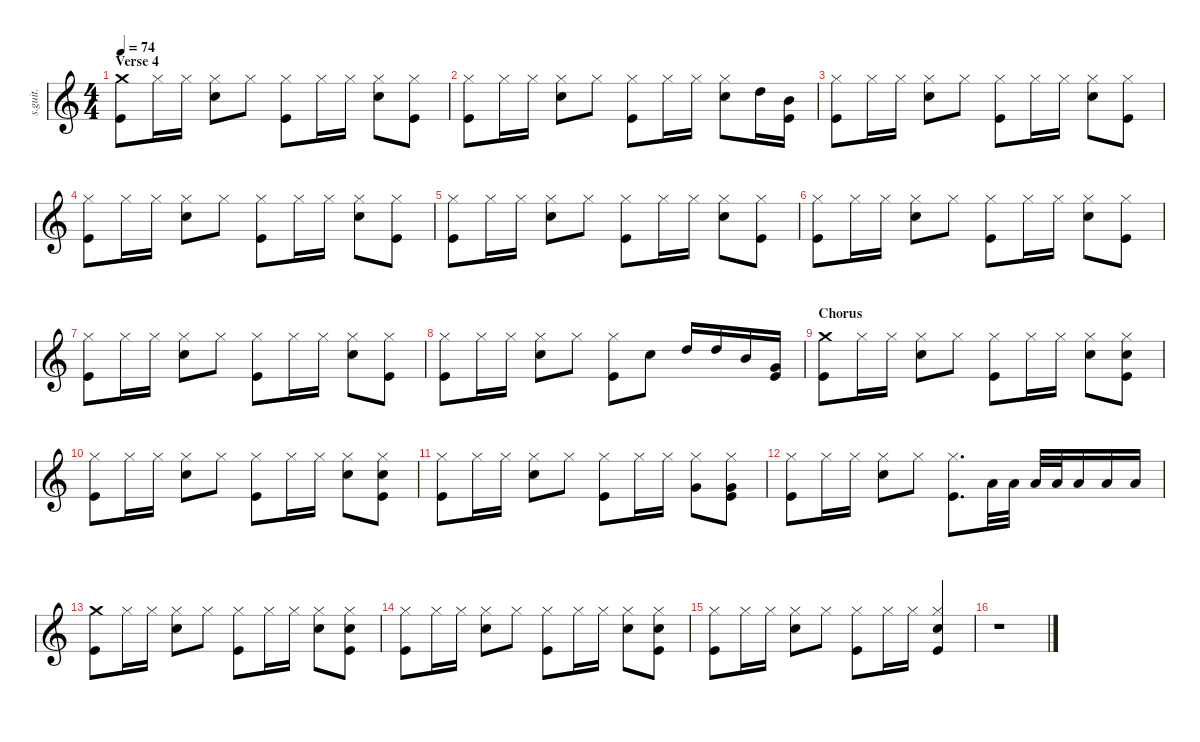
\defaultSystemsLayout 4
\hideDynamics
\bracketExtendMode nobrackets
\track ("Don Henley - Drums" "s.guit.") {instrument percussion}
\staff {score}
\articulation defaults
\ts (4 4)
\section ("" "Verse 4")
\tempo 74
\clef g2
\ks c
("Crash medium (hit)" "Kick (hit)").8{lyrics (0 "") lyrics (1 "") lyrics (2 "") lyrics (3 "") lyrics (4 "") dy f} "Hi-Hat (closed)".16{lyrics (0 "") lyrics (1 "") lyrics (2 "") lyrics (3 "") lyrics (4 "")} "Hi-Hat (closed)".16{lyrics (0 "") lyrics (1 "") lyrics (2 "") lyrics (3 "") lyrics (4 "")} ("Hi-Hat (closed)" "Snare (hit) 2").8{lyrics (0 "") lyrics (1 "") lyrics (2 "") lyrics (3 "") lyrics (4 "")} "Hi-Hat (closed)".8{lyrics (0 "") lyrics (1 "") lyrics (2 "") lyrics (3 "") lyrics (4 "")} ("Hi-Hat (closed)" "Kick (hit)").8{lyrics (0 "") lyrics (1 "") lyrics (2 "") lyrics (3 "") lyrics (4 "")} "Hi-Hat (closed)".16{lyrics (0 "") lyrics (1 "") lyrics (2 "") lyrics (3 "") lyrics (4 "")} "Hi-Hat (closed)".16{lyrics (0 "") lyrics (1 "") lyrics (2 "") lyrics (3 "") lyrics (4 "")} ("Hi-Hat (closed)" "Snare (hit) 2").8{lyrics (0 "") lyrics (1 "") lyrics (2 "") lyrics (3 "") lyrics (4 "")} ("Hi-Hat (closed)" "Kick (hit)").8{lyrics (0 "") lyrics (1 "") lyrics (2 "") lyrics (3 "") lyrics (4 "")} |
("Hi-Hat (closed)" "Kick (hit)").8{lyrics (0 "") lyrics (1 "") lyrics (2 "") lyrics (3 "") lyrics (4 "")} "Hi-Hat (closed)".16{lyrics (0 "") lyrics (1 "") lyrics (2 "") lyrics (3 "") lyrics (4 "")} "Hi-Hat (closed)".16{lyrics (0 "") lyrics (1 "") lyrics (2 "") lyrics (3 "") lyrics (4 "")} ("Hi-Hat (closed)" "Snare (hit) 2").8{lyrics (0 "") lyrics (1 "") lyrics (2 "") lyrics (3 "") lyrics (4 "")} "Hi-Hat (closed)".8{lyrics (0 "") lyrics (1 "") lyrics (2 "") lyrics (3 "") lyrics (4 "")} ("Hi-Hat (closed)" "Kick (hit)").8{lyrics (0 "") lyrics (1 "") lyrics (2 "") lyrics (3 "") lyrics (4 "")} "Hi-Hat (closed)".16{lyrics (0 "") lyrics (1 "") lyrics (2 "") lyrics (3 "") lyrics (4 "")} "Hi-Hat (closed)".16{lyrics (0 "") lyrics (1 "") lyrics (2 "") lyrics (3 "") lyrics (4 "")} ("Hi-Hat (closed)" "Snare (hit) 2").8{lyrics (0 "") lyrics (1 "") lyrics (2 "") lyrics (3 "") lyrics (4 "")} "High Tom (hit)".16{lyrics (0 "") lyrics (1 "") lyrics (2 "") lyrics (3 "") lyrics (4 "")} ("Mid Tom (hit)" "Kick (hit)").16{lyrics (0 "") lyrics (1 "") lyrics (2 "") lyrics (3 "") lyrics (4 "")} |
("Hi-Hat (closed)" "Kick (hit)").8{lyrics (0 "") lyrics (1 "") lyrics (2 "") lyrics (3 "") lyrics (4 "")} "Hi-Hat (closed)".16{lyrics (0 "") lyrics (1 "") lyrics (2 "") lyrics (3 "") lyrics (4 "")} "Hi-Hat (closed)".16{lyrics (0 "") lyrics (1 "") lyrics (2 "") lyrics (3 "") lyrics (4 "")} ("Hi-Hat (closed)" "Snare (hit) 2").8{lyrics (0 "") lyrics (1 "") lyrics (2 "") lyrics (3 "") lyrics (4 "")} "Hi-Hat (closed)".8{lyrics (0 "") lyrics (1 "") lyrics (2 "") lyrics (3 "") lyrics (4 "")} ("Hi-Hat (closed)" "Kick (hit)").8{lyrics (0 "") lyrics (1 "") lyrics (2 "") lyrics (3 "") lyrics (4 "")} "Hi-Hat (closed)".16{lyrics (0 "") lyrics (1 "") lyrics (2 "") lyrics (3 "") lyrics (4 "")} "Hi-Hat (closed)".16{lyrics (0 "") lyrics (1 "") lyrics (2 "") lyrics (3 "") lyrics (4 "")} ("Hi-Hat (closed)" "Snare (hit) 2").8{lyrics (0 "") lyrics (1 "") lyrics (2 "") lyrics (3 "") lyrics (4 "")} ("Hi-Hat (closed)" "Kick (hit)").8{lyrics (0 "") lyrics (1 "") lyrics (2 "") lyrics (3 "") lyrics (4 "")} |
("Hi-Hat (closed)" "Kick (hit)").8{lyrics (0 "") lyrics (1 "") lyrics (2 "") lyrics (3 "") lyrics (4 "")} "Hi-Hat (closed)".16{lyrics (0 "") lyrics (1 "") lyrics (2 "") lyrics (3 "") lyrics (4 "")} "Hi-Hat (closed)".16{lyrics (0 "") lyrics (1 "") lyrics (2 "") lyrics (3 "") lyrics (4 "")} ("Hi-Hat (closed)" "Snare (hit) 2").8{lyrics (0 "") lyrics (1 "") lyrics (2 "") lyrics (3 "") lyrics (4 "")} "Hi-Hat (closed)".8{lyrics (0 "") lyrics (1 "") lyrics (2 "") lyrics (3 "") lyrics (4 "")} ("Hi-Hat (closed)" "Kick (hit)").8{lyrics (0 "") lyrics (1 "") lyrics (2 "") lyrics (3 "") lyrics (4 "")} "Hi-Hat (closed)".16{lyrics (0 "") lyrics (1 "") lyrics (2 "") lyrics (3 "") lyrics (4 "")} "Hi-Hat (closed)".16{lyrics (0 "") lyrics (1 "") lyrics (2 "") lyrics (3 "") lyrics (4 "")} ("Hi-Hat (closed)" "Snare (hit) 2").8{lyrics (0 "") lyrics (1 "") lyrics (2 "") lyrics (3 "") lyrics (4 "")} ("Hi-Hat (closed)" "Kick (hit)").8{lyrics (0 "") lyrics (1 "") lyrics (2 "") lyrics (3 "") lyrics (4 "")} |
("Hi-Hat (closed)" "Kick (hit)").8{lyrics (0 "") lyrics (1 "") lyrics (2 "") lyrics (3 "") lyrics (4 "")} "Hi-Hat (closed)".16{lyrics (0 "") lyrics (1 "") lyrics (2 "") lyrics (3 "") lyrics (4 "")} "Hi-Hat (closed)".16{lyrics (0 "") lyrics (1 "") lyrics (2 "") lyrics (3 "") lyrics (4 "")} ("Hi-Hat (closed)" "Snare (hit) 2").8{lyrics (0 "") lyrics (1 "") lyrics (2 "") lyrics (3 "") lyrics (4 "")} "Hi-Hat (closed)".8{lyrics (0 "") lyrics (1 "") lyrics (2 "") lyrics (3 "") lyrics (4 "")} ("Hi-Hat (closed)" "Kick (hit)").8{lyrics (0 "") lyrics (1 "") lyrics (2 "") lyrics (3 "") lyrics (4 "")} "Hi-Hat (closed)".16{lyrics (0 "") lyrics (1 "") lyrics (2 "") lyrics (3 "") lyrics (4 "")} "Hi-Hat (closed)".16{lyrics (0 "") lyrics (1 "") lyrics (2 "") lyrics (3 "") lyrics (4 "")} ("Hi-Hat (closed)" "Snare (hit) 2").8{lyrics (0 "") lyrics (1 "") lyrics (2 "") lyrics (3 "") lyrics (4 "")} ("Hi-Hat (closed)" "Kick (hit)").8{lyrics (0 "") lyrics (1 "") lyrics (2 "") lyrics (3 "") lyrics (4 "")} |
("Hi-Hat (closed)" "Kick (hit)").8{lyrics (0 "") lyrics (1 "") lyrics (2 "") lyrics (3 "") lyrics (4 "")} "Hi-Hat (closed)".16{lyrics (0 "") lyrics (1 "") lyrics (2 "") lyrics (3 "") lyrics (4 "")} "Hi-Hat (closed)".16{lyrics (0 "") lyrics (1 "") lyrics (2 "") lyrics (3 "") lyrics (4 "")} ("Hi-Hat (closed)" "Snare (hit) 2").8{lyrics (0 "") lyrics (1 "") lyrics (2 "") lyrics (3 "") lyrics (4 "")} "Hi-Hat (closed)".8{lyrics (0 "") lyrics (1 "") lyrics (2 "") lyrics (3 "") lyrics (4 "")} ("Hi-Hat (closed)" "Kick (hit)").8{lyrics (0 "") lyrics (1 "") lyrics (2 "") lyrics (3 "") lyrics (4 "")} "Hi-Hat (closed)".16{lyrics (0 "") lyrics (1 "") lyrics (2 "") lyrics (3 "") lyrics (4 "")} "Hi-Hat (closed)".16{lyrics (0 "") lyrics (1 "") lyrics (2 "") lyrics (3 "") lyrics (4 "")} ("Hi-Hat (closed)" "Snare (hit) 2").8{lyrics (0 "") lyrics (1 "") lyrics (2 "") lyrics (3 "") lyrics (4 "")} ("Hi-Hat (closed)" "Kick (hit)").8{lyrics (0 "") lyrics (1 "") lyrics (2 "") lyrics (3 "") lyrics (4 "")} |
("Hi-Hat (closed)" "Kick (hit)").8{lyrics (0 "") lyrics (1 "") lyrics (2 "") lyrics (3 "") lyrics (4 "")} "Hi-Hat (closed)".16{lyrics (0 "") lyrics (1 "") lyrics (2 "") lyrics (3 "") lyrics (4 "")} "Hi-Hat (closed)".16{lyrics (0 "") lyrics (1 "") lyrics (2 "") lyrics (3 "") lyrics (4 "")} ("Hi-Hat (closed)" "Snare (hit) 2").8{lyrics (0 "") lyrics (1 "") lyrics (2 "") lyrics (3 "") lyrics (4 "")} "Hi-Hat (closed)".8{lyrics (0 "") lyrics (1 "") lyrics (2 "") lyrics (3 "") lyrics (4 "")} ("Hi-Hat (closed)" "Kick (hit)").8{lyrics (0 "") lyrics (1 "") lyrics (2 "") lyrics (3 "") lyrics (4 "")} "Hi-Hat (closed)".16{lyrics (0 "") lyrics (1 "") lyrics (2 "") lyrics (3 "") lyrics (4 "")} "Hi-Hat (closed)".16{lyrics (0 "") lyrics (1 "") lyrics (2 "") lyrics (3 "") lyrics (4 "")} ("Hi-Hat (closed)" "Snare (hit) 2").8{lyrics (0 "") lyrics (1 "") lyrics (2 "") lyrics (3 "") lyrics (4 "")} ("Hi-Hat (closed)" "Kick (hit)").8{lyrics (0 "") lyrics (1 "") lyrics (2 "") lyrics (3 "") lyrics (4 "")} |
("Hi-Hat (closed)" "Kick (hit)").8{lyrics (0 "") lyrics (1 "") lyrics (2 "") lyrics (3 "") lyrics (4 "")} "Hi-Hat (closed)".16{lyrics (0 "") lyrics (1 "") lyrics (2 "") lyrics (3 "") lyrics (4 "")} "Hi-Hat (closed)".16{lyrics (0 "") lyrics (1 "") lyrics (2 "") lyrics (3 "") lyrics (4 "")} ("Hi-Hat (closed)" "Snare (hit) 2").8{lyrics (0 "") lyrics (1 "") lyrics (2 "") lyrics (3 "") lyrics (4 "")} "Hi-Hat (closed)".8{lyrics (0 "") lyrics (1 "") lyrics (2 "") lyrics (3 "") lyrics (4 "")} ("Hi-Hat (closed)" "Kick (hit)").8{lyrics (0 "") lyrics (1 "") lyrics (2 "") lyrics (3 "") lyrics (4 "")} "Snare (hit) 2".8{lyrics (0 "") lyrics (1 "") lyrics (2 "") lyrics (3 "") lyrics (4 "")} "High Tom (hit)".16{lyrics (0 "") lyrics (1 "") lyrics (2 "") lyrics (3 "") lyrics (4 "")} "High Tom (hit)".16{lyrics (0 "") lyrics (1 "") lyrics (2 "") lyrics (3 "") lyrics (4 "")} "Mid Tom (hit)".16{lyrics (0 "") lyrics (1 "") lyrics (2 "") lyrics (3 "") lyrics (4 "")} ("Very Low Tom (hit)" "Kick (hit)").16{lyrics (0 "") lyrics (1 "") lyrics (2 "") lyrics (3 "") lyrics (4 "")} |
\section ("" "Chorus")
("Crash medium (hit)" "Kick (hit)").8{lyrics (0 "") lyrics (1 "") lyrics (2 "") lyrics (3 "") lyrics (4 "")} "Hi-Hat (closed)".16{lyrics (0 "") lyrics (1 "") lyrics (2 "") lyrics (3 "") lyrics (4 "")} "Hi-Hat (closed)".16{lyrics (0 "") lyrics (1 "") lyrics (2 "") lyrics (3 "") lyrics (4 "")} ("Hi-Hat (closed)" "Snare (hit) 2").8{lyrics (0 "") lyrics (1 "") lyrics (2 "") lyrics (3 "") lyrics (4 "")} "Hi-Hat (closed)".8{lyrics (0 "") lyrics (1 "") lyrics (2 "") lyrics (3 "") lyrics (4 "")} ("Hi-Hat (closed)" "Kick (hit)").8{lyrics (0 "") lyrics (1 "") lyrics (2 "") lyrics (3 "") lyrics (4 "")} "Hi-Hat (closed)".16{lyrics (0 "") lyrics (1 "") lyrics (2 "") lyrics (3 "") lyrics (4 "")} "Hi-Hat (closed)".16{lyrics (0 "") lyrics (1 "") lyrics (2 "") lyrics (3 "") lyrics (4 "")} ("Hi-Hat (closed)" "Snare (hit) 2").8{lyrics (0 "") lyrics (1 "") lyrics (2 "") lyrics (3 "") lyrics (4 "")} ("Hi-Hat (closed)" "Snare (hit) 2" "Kick (hit)").8{lyrics (0 "") lyrics (1 "") lyrics (2 "") lyrics (3 "") lyrics (4 "")} |
("Hi-Hat (closed)" "Kick (hit)").8{lyrics (0 "") lyrics (1 "") lyrics (2 "") lyrics (3 "") lyrics (4 "")} "Hi-Hat (closed)".16{lyrics (0 "") lyrics (1 "") lyrics (2 "") lyrics (3 "") lyrics (4 "")} "Hi-Hat (closed)".16{lyrics (0 "") lyrics (1 "") lyrics (2 "") lyrics (3 "") lyrics (4 "")} ("Hi-Hat (closed)" "Snare (hit) 2").8{lyrics (0 "") lyrics (1 "") lyrics (2 "") lyrics (3 "") lyrics (4 "")} "Hi-Hat (closed)".8{lyrics (0 "") lyrics (1 "") lyrics (2 "") lyrics (3 "") lyrics (4 "")} ("Hi-Hat (closed)" "Kick (hit)").8{lyrics (0 "") lyrics (1 "") lyrics (2 "") lyrics (3 "") lyrics (4 "")} "Hi-Hat (closed)".16{lyrics (0 "") lyrics (1 "") lyrics (2 "") lyrics (3 "") lyrics (4 "")} "Hi-Hat (closed)".16{lyrics (0 "") lyrics (1 "") lyrics (2 "") lyrics (3 "") lyrics (4 "")} ("Hi-Hat (closed)" "Snare (hit) 2").8{lyrics (0 "") lyrics (1 "") lyrics (2 "") lyrics (3 "") lyrics (4 "")} ("Hi-Hat (closed)" "Snare (hit) 2" "Kick (hit)").8{lyrics (0 "") lyrics (1 "") lyrics (2 "") lyrics (3 "") lyrics (4 "")} |
("Hi-Hat (closed)" "Kick (hit)").8{lyrics (0 "") lyrics (1 "") lyrics (2 "") lyrics (3 "") lyrics (4 "")} "Hi-Hat (closed)".16{lyrics (0 "") lyrics (1 "") lyrics (2 "") lyrics (3 "") lyrics (4 "")} "Hi-Hat (closed)".16{lyrics (0 "") lyrics (1 "") lyrics (2 "") lyrics (3 "") lyrics (4 "")} ("Hi-Hat (closed)" "Snare (hit) 2").8{lyrics (0 "") lyrics (1 "") lyrics (2 "") lyrics (3 "") lyrics (4 "")} "Hi-Hat (closed)".8{lyrics (0 "") lyrics (1 "") lyrics (2 "") lyrics (3 "") lyrics (4 "")} ("Hi-Hat (closed)" "Kick (hit)").8{lyrics (0 "") lyrics (1 "") lyrics (2 "") lyrics (3 "") lyrics (4 "")} "Hi-Hat (closed)".16{lyrics (0 "") lyrics (1 "") lyrics (2 "") lyrics (3 "") lyrics (4 "")} "Hi-Hat (closed)".16{lyrics (0 "") lyrics (1 "") lyrics (2 "") lyrics (3 "") lyrics (4 "")} ("Hi-Hat (closed)" "Very Low Tom (hit)").8{lyrics (0 "") lyrics (1 "") lyrics (2 "") lyrics (3 "") lyrics (4 "")} ("Hi-Hat (closed)" "Very Low Tom (hit)" "Kick (hit)").8{lyrics (0 "") lyrics (1 "") lyrics (2 "") lyrics (3 "") lyrics (4 "")} |
("Hi-Hat (closed)" "Kick (hit)").8{lyrics (0 "") lyrics (1 "") lyrics (2 "") lyrics (3 "") lyrics (4 "")} "Hi-Hat (closed)".16{lyrics (0 "") lyrics (1 "") lyrics (2 "") lyrics (3 "") lyrics (4 "")} "Hi-Hat (closed)".16{lyrics (0 "") lyrics (1 "") lyrics (2 "") lyrics (3 "") lyrics (4 "")} ("Hi-Hat (closed)" "Snare (hit) 2").8{lyrics (0 "") lyrics (1 "") lyrics (2 "") lyrics (3 "") lyrics (4 "")} "Hi-Hat (closed)".8{lyrics (0 "") lyrics (1 "") lyrics (2 "") lyrics (3 "") lyrics (4 "")} ("Hi-Hat (closed)" "Kick (hit)").8{d lyrics (0 "") lyrics (1 "") lyrics (2 "") lyrics (3 "") lyrics (4 "")} "Low Tom (hit)".32{lyrics (0 "") lyrics (1 "") lyrics (2 "") lyrics (3 "") lyrics (4 "")} "Low Tom (hit)".32{lyrics (0 "") lyrics (1 "") lyrics (2 "") lyrics (3 "") lyrics (4 "")} "Low Tom (hit)".32{lyrics (0 "") lyrics (1 "") lyrics (2 "") lyrics (3 "") lyrics (4 "")} "Low Tom (hit)".32{lyrics (0 "") lyrics (1 "") lyrics (2 "") lyrics (3 "") lyrics (4 "")} "Low Floor Tom (hit)".16{lyrics (0 "") lyrics (1 "") lyrics (2 "") lyrics (3 "") lyrics (4 "")} "Low Floor Tom (hit)".16{lyrics (0 "") lyrics (1 "") lyrics (2 "") lyrics (3 "") lyrics (4 "")} "Low Floor Tom (hit)".16{lyrics (0 "") lyrics (1 "") lyrics (2 "") lyrics (3 "") lyrics (4 "")} |
("Crash medium (hit)" "Kick (hit)").8{lyrics (0 "") lyrics (1 "") lyrics (2 "") lyrics (3 "") lyrics (4 "")} "Hi-Hat (closed)".16{lyrics (0 "") lyrics (1 "") lyrics (2 "") lyrics (3 "") lyrics (4 "")} "Hi-Hat (closed)".16{lyrics (0 "") lyrics (1 "") lyrics (2 "") lyrics (3 "") lyrics (4 "")} ("Hi-Hat (closed)" "Snare (hit) 2").8{lyrics (0 "") lyrics (1 "") lyrics (2 "") lyrics (3 "") lyrics (4 "")} "Hi-Hat (closed)".8{lyrics (0 "") lyrics (1 "") lyrics (2 "") lyrics (3 "") lyrics (4 "")} ("Hi-Hat (closed)" "Kick (hit)").8{lyrics (0 "") lyrics (1 "") lyrics (2 "") lyrics (3 "") lyrics (4 "")} "Hi-Hat (closed)".16{lyrics (0 "") lyrics (1 "") lyrics (2 "") lyrics (3 "") lyrics (4 "")} "Hi-Hat (closed)".16{lyrics (0 "") lyrics (1 "") lyrics (2 "") lyrics (3 "") lyrics (4 "")} ("Hi-Hat (closed)" "Snare (hit) 2").8{lyrics (0 "") lyrics (1 "") lyrics (2 "") lyrics (3 "") lyrics (4 "")} ("Hi-Hat (closed)" "Snare (hit) 2" "Kick (hit)").8{lyrics (0 "") lyrics (1 "") lyrics (2 "") lyrics (3 "") lyrics (4 "")} |
("Hi-Hat (closed)" "Kick (hit)").8{lyrics (0 "") lyrics (1 "") lyrics (2 "") lyrics (3 "") lyrics (4 "")} "Hi-Hat (closed)".16{lyrics (0 "") lyrics (1 "") lyrics (2 "") lyrics (3 "") lyrics (4 "")} "Hi-Hat (closed)".16{lyrics (0 "") lyrics (1 "") lyrics (2 "") lyrics (3 "") lyrics (4 "")} ("Hi-Hat (closed)" "Snare (hit) 2").8{lyrics (0 "") lyrics (1 "") lyrics (2 "") lyrics (3 "") lyrics (4 "")} "Hi-Hat (closed)".8{lyrics (0 "") lyrics (1 "") lyrics (2 "") lyrics (3 "") lyrics (4 "")} ("Hi-Hat (closed)" "Kick (hit)").8{lyrics (0 "") lyrics (1 "") lyrics (2 "") lyrics (3 "") lyrics (4 "")} "Hi-Hat (closed)".16{lyrics (0 "") lyrics (1 "") lyrics (2 "") lyrics (3 "") lyrics (4 "")} "Hi-Hat (closed)".16{lyrics (0 "") lyrics (1 "") lyrics (2 "") lyrics (3 "") lyrics (4 "")} ("Hi-Hat (closed)" "Snare (hit) 2").8{lyrics (0 "") lyrics (1 "") lyrics (2 "") lyrics (3 "") lyrics (4 "")} ("Hi-Hat (closed)" "Snare (hit) 2" "Kick (hit)").8{lyrics (0 "") lyrics (1 "") lyrics (2 "") lyrics (3 "") lyrics (4 "")} |
("Hi-Hat (closed)" "Kick (hit)").8{lyrics (0 "") lyrics (1 "") lyrics (2 "") lyrics (3 "") lyrics (4 "")} "Hi-Hat (closed)".16{lyrics (0 "") lyrics (1 "") lyrics (2 "") lyrics (3 "") lyrics (4 "")} "Hi-Hat (closed)".16{lyrics (0 "") lyrics (1 "") lyrics (2 "") lyrics (3 "") lyrics (4 "")} ("Hi-Hat (closed)" "Snare (hit) 2").8{lyrics (0 "") lyrics (1 "") lyrics (2 "") lyrics (3 "") lyrics (4 "")} "Hi-Hat (closed)".8{lyrics (0 "") lyrics (1 "") lyrics (2 "") lyrics (3 "") lyrics (4 "")} ("Hi-Hat (closed)" "Kick (hit)").8{lyrics (0 "") lyrics (1 "") lyrics (2 "") lyrics (3 "") lyrics (4 "")} "Hi-Hat (closed)".16{lyrics (0 "") lyrics (1 "") lyrics (2 "") lyrics (3 "") lyrics (4 "")} "Hi-Hat (closed)".16{lyrics (0 "") lyrics (1 "") lyrics (2 "") lyrics (3 "") lyrics (4 "")} ("Hi-Hat (closed)" "Snare (hit) 2" "Kick (hit)").4{lyrics (0 "") lyrics (1 "") lyrics (2 "") lyrics (3 "") lyrics (4 "")} |
r.1
